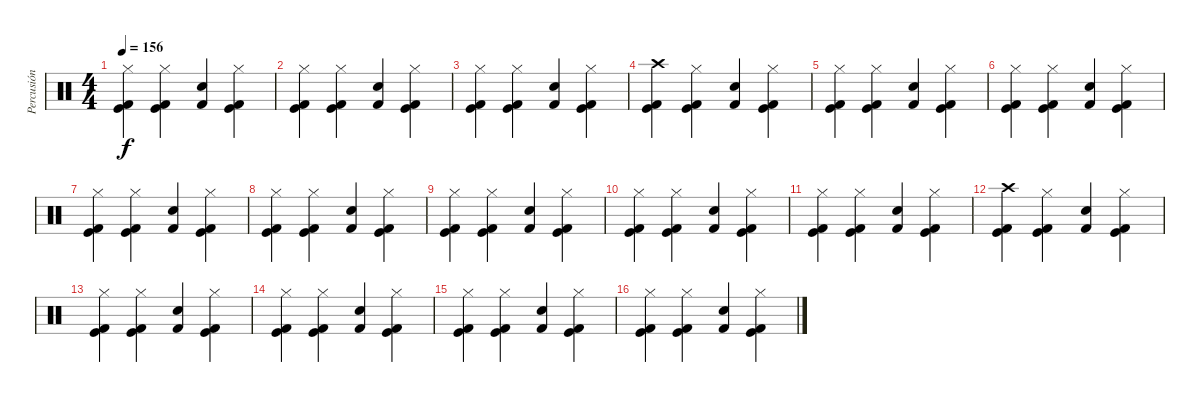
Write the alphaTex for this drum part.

\track ("Percusión" "Percusión") {instrument percussion}
\staff {score}
\articulation defaults
\ts (4 4)
\tempo 156
\clef neutral
\ks c
("Kick (hit) 2" "Kick (hit)" "Hi-Hat (closed)").4{dy f} ("Kick (hit) 2" "Kick (hit)" "Hi-Hat (closed)").4 ("Kick (hit) 2" "Snare (hit) 2").4 ("Kick (hit) 2" "Kick (hit)" "Hi-Hat (closed)").4 |
("Kick (hit) 2" "Kick (hit)" "Hi-Hat (closed)").4 ("Kick (hit) 2" "Kick (hit)" "Hi-Hat (closed)").4 ("Kick (hit) 2" "Snare (hit) 2").4 ("Kick (hit) 2" "Kick (hit)" "Hi-Hat (closed)").4 |
("Kick (hit) 2" "Kick (hit)" "Hi-Hat (closed)").4 ("Kick (hit) 2" "Kick (hit)" "Hi-Hat (closed)").4 ("Kick (hit) 2" "Snare (hit) 2").4 ("Kick (hit) 2" "Kick (hit)" "Hi-Hat (closed)").4 |
("Kick (hit) 2" "Kick (hit)" "Crash high (hit)").4 ("Kick (hit) 2" "Kick (hit)" "Hi-Hat (closed)").4 ("Kick (hit) 2" "Snare (hit) 2").4 ("Kick (hit) 2" "Kick (hit)" "Hi-Hat (closed)").4 |
("Kick (hit) 2" "Kick (hit)" "Hi-Hat (closed)").4 ("Kick (hit) 2" "Kick (hit)" "Hi-Hat (closed)").4 ("Kick (hit) 2" "Snare (hit) 2").4 ("Kick (hit) 2" "Kick (hit)" "Hi-Hat (closed)").4 |
("Kick (hit) 2" "Kick (hit)" "Hi-Hat (closed)").4 ("Kick (hit) 2" "Kick (hit)" "Hi-Hat (closed)").4 ("Kick (hit) 2" "Snare (hit) 2").4 ("Kick (hit) 2" "Kick (hit)" "Hi-Hat (closed)").4 |
("Kick (hit) 2" "Kick (hit)" "Hi-Hat (closed)").4 ("Kick (hit) 2" "Kick (hit)" "Hi-Hat (closed)").4 ("Kick (hit) 2" "Snare (hit) 2").4 ("Kick (hit) 2" "Kick (hit)" "Hi-Hat (closed)").4 |
("Kick (hit) 2" "Kick (hit)" "Hi-Hat (closed)").4 ("Kick (hit) 2" "Kick (hit)" "Hi-Hat (closed)").4 ("Kick (hit) 2" "Snare (hit) 2").4 ("Kick (hit) 2" "Kick (hit)" "Hi-Hat (closed)").4 |
("Kick (hit) 2" "Kick (hit)" "Hi-Hat (closed)").4 ("Kick (hit) 2" "Kick (hit)" "Hi-Hat (closed)").4 ("Kick (hit) 2" "Snare (hit) 2").4 ("Kick (hit) 2" "Kick (hit)" "Hi-Hat (closed)").4 |
("Kick (hit) 2" "Kick (hit)" "Hi-Hat (closed)").4 ("Kick (hit) 2" "Kick (hit)" "Hi-Hat (closed)").4 ("Kick (hit) 2" "Snare (hit) 2").4 ("Kick (hit) 2" "Kick (hit)" "Hi-Hat (closed)").4 |
("Kick (hit) 2" "Kick (hit)" "Hi-Hat (closed)").4 ("Kick (hit) 2" "Kick (hit)" "Hi-Hat (closed)").4 ("Kick (hit) 2" "Snare (hit) 2").4 ("Kick (hit) 2" "Kick (hit)" "Hi-Hat (closed)").4 |
("Kick (hit) 2" "Kick (hit)" "Crash high (hit)").4 ("Kick (hit) 2" "Kick (hit)" "Hi-Hat (closed)").4 ("Kick (hit) 2" "Snare (hit) 2").4 ("Kick (hit) 2" "Kick (hit)" "Hi-Hat (closed)").4 |
("Kick (hit) 2" "Kick (hit)" "Hi-Hat (closed)").4 ("Kick (hit) 2" "Kick (hit)" "Hi-Hat (closed)").4 ("Kick (hit) 2" "Snare (hit) 2").4 ("Kick (hit) 2" "Kick (hit)" "Hi-Hat (closed)").4 |
("Kick (hit) 2" "Kick (hit)" "Hi-Hat (closed)").4 ("Kick (hit) 2" "Kick (hit)" "Hi-Hat (closed)").4 ("Kick (hit) 2" "Snare (hit) 2").4 ("Kick (hit) 2" "Kick (hit)" "Hi-Hat (closed)").4 |
("Kick (hit) 2" "Kick (hit)" "Hi-Hat (closed)").4 ("Kick (hit) 2" "Kick (hit)" "Hi-Hat (closed)").4 ("Kick (hit) 2" "Snare (hit) 2").4 ("Kick (hit) 2" "Kick (hit)" "Hi-Hat (closed)").4 |
("Kick (hit) 2" "Kick (hit)" "Hi-Hat (closed)").4 ("Kick (hit) 2" "Kick (hit)" "Hi-Hat (closed)").4 ("Kick (hit) 2" "Snare (hit) 2").4 ("Kick (hit) 2" "Kick (hit)" "Hi-Hat (closed)").4
